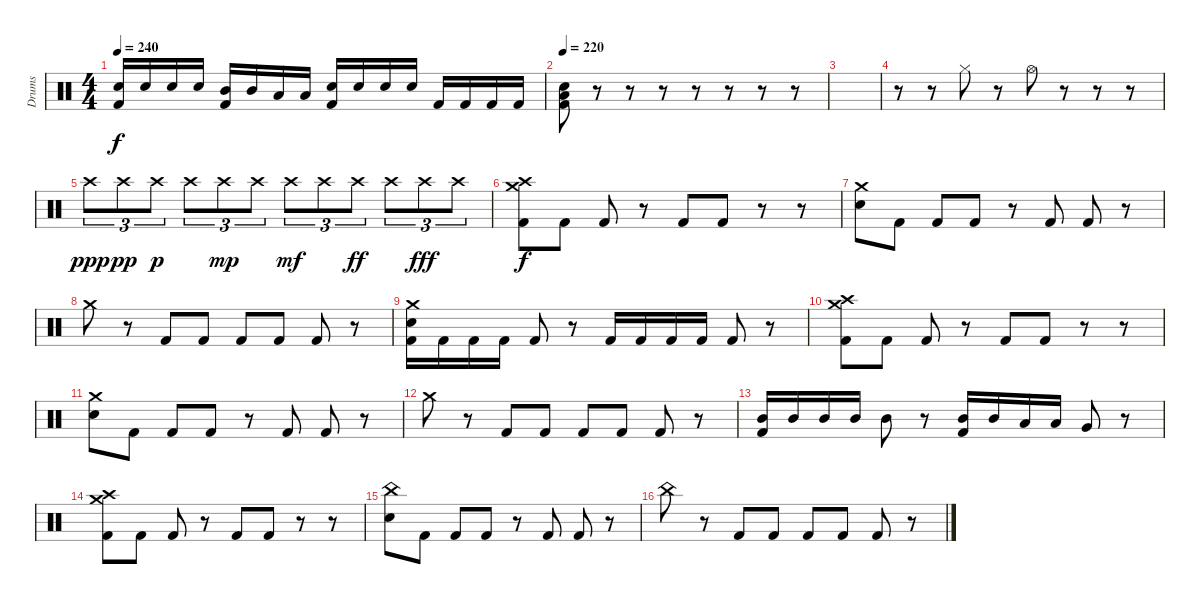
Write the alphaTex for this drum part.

\track ("Drums" "Drums") {instrument percussion}
\staff {score}
\articulation defaults
\ts (4 4)
\tempo 240
\clef neutral
\ks c
("Electric Snare (hit)" "Kick (hit) 2").16{dy f} "Electric Snare (hit)".16 "Electric Snare (hit)".16 "Electric Snare (hit)".16 ("Mid Tom (hit)" "Kick (hit) 2").16 "Mid Tom (hit)".16 "Low Tom (hit)".16 "Low Tom (hit)".16 ("Electric Snare (hit)" "Kick (hit) 2").16 "Electric Snare (hit)".16 "Electric Snare (hit)".16 "Electric Snare (hit)".16 "Kick (hit) 2".16 "Kick (hit) 2".16 "Kick (hit) 2".16 "Kick (hit) 2".16 |
\tempo 220
("Electric Snare (hit)" "Low Floor Tom (hit)" "Kick (hit) 2").8 r.8 r.8 r.8 r.8 r.8 r.8 r.8 |
|
r.8 r.8 "Hi-Hat (closed)".8 r.8 "Hi-Hat (open)".8 r.8 r.8 r.8 |
"Crash high (hit)".8{tu (3 2) dy ppp} "Crash high (hit)".8{tu (3 2) dy pp} "Crash high (hit)".8{tu (3 2) dy p} "Crash high (hit)".8{tu (3 2)} "Crash high (hit)".8{tu (3 2) dy mp} "Crash high (hit)".8{tu (3 2)} "Crash high (hit)".8{tu (3 2) dy mf} "Crash high (hit)".8{tu (3 2)} "Crash high (hit)".8{tu (3 2) dy ff} "Crash high (hit)".8{tu (3 2)} "Crash high (hit)".8{tu (3 2) dy fff} "Crash high (hit)".8{tu (3 2)} |
("Crash medium (hit)" "Crash high (hit)" "Kick (hit) 2").8{dy f} "Kick (hit) 2".8 "Kick (hit) 2".8 r.8 "Kick (hit) 2".8 "Kick (hit) 2".8 r.8 r.8 |
("Crash medium (hit)" "Electric Snare (hit)").8 "Kick (hit) 2".8 "Kick (hit) 2".8 "Kick (hit) 2".8 r.8 "Kick (hit) 2".8 "Kick (hit) 2".8 r.8 |
"Crash medium (hit)".8 r.8 "Kick (hit) 2".8 "Kick (hit) 2".8 "Kick (hit) 2".8 "Kick (hit) 2".8 "Kick (hit) 2".8 r.8 |
("Crash medium (hit)" "Electric Snare (hit)" "Kick (hit) 2").16 "Kick (hit) 2".16 "Kick (hit) 2".16 "Kick (hit) 2".16 "Kick (hit) 2".8 r.8 "Kick (hit) 2".16 "Kick (hit) 2".16 "Kick (hit) 2".16 "Kick (hit) 2".16 "Kick (hit) 2".8 r.8 |
("Crash medium (hit)" "Crash high (hit)" "Kick (hit) 2").8 "Kick (hit) 2".8 "Kick (hit) 2".8 r.8 "Kick (hit) 2".8 "Kick (hit) 2".8 r.8 r.8 |
("Crash medium (hit)" "Electric Snare (hit)").8 "Kick (hit) 2".8 "Kick (hit) 2".8 "Kick (hit) 2".8 r.8 "Kick (hit) 2".8 "Kick (hit) 2".8 r.8 |
"Crash medium (hit)".8 r.8 "Kick (hit) 2".8 "Kick (hit) 2".8 "Kick (hit) 2".8 "Kick (hit) 2".8 "Kick (hit) 2".8 r.8 |
("Mid Tom (hit)" "Kick (hit) 2").16 "Mid Tom (hit)".16 "Mid Tom (hit)".16 "Mid Tom (hit)".16 "Mid Tom (hit)".8 r.8 ("Mid Tom (hit)" "Kick (hit) 2").16 "Mid Tom (hit)".16 "Low Tom (hit)".16 "Low Tom (hit)".16 "Very Low Tom (hit)".8 r.8 |
("Crash medium (hit)" "Crash high (hit)" "Kick (hit) 2").8 "Kick (hit) 2".8 "Kick (hit) 2".8 r.8 "Kick (hit) 2".8 "Kick (hit) 2".8 r.8 r.8 |
("China (hit)" "Electric Snare (hit)").8 "Kick (hit) 2".8 "Kick (hit) 2".8 "Kick (hit) 2".8 r.8 "Kick (hit) 2".8 "Kick (hit) 2".8 r.8 |
"China (hit)".8 r.8 "Kick (hit) 2".8 "Kick (hit) 2".8 "Kick (hit) 2".8 "Kick (hit) 2".8 "Kick (hit) 2".8 r.8
